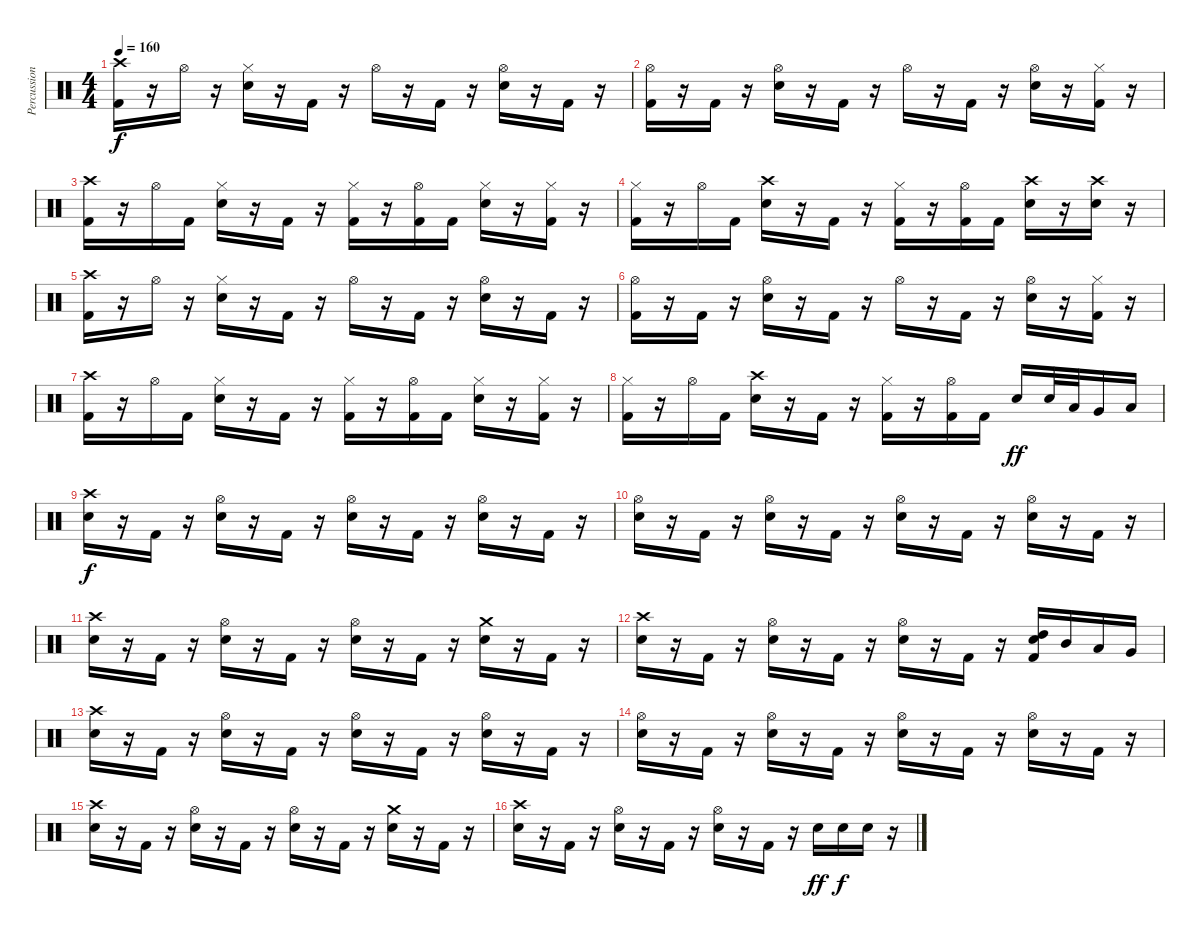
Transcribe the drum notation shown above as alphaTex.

\track ("Percussion" "Percussion") {instrument percussion}
\staff {score}
\articulation defaults
\ts (4 4)
\tempo 160
\clef neutral
\ks c
("Crash high (hit)" "Kick (hit) 2").16{dy f} r.16 "Hi-Hat (open)".16 r.16 ("Hi-Hat (closed)" "Snare (hit) 2").16 r.16 "Kick (hit) 2".16 r.16 "Hi-Hat (open)".16 r.16 "Kick (hit) 2".16 r.16 ("Hi-Hat (open)" "Snare (hit) 2").16 r.16 "Kick (hit) 2".16 r.16 |
("Hi-Hat (open)" "Kick (hit) 2").16 r.16 "Kick (hit) 2".16 r.16 ("Hi-Hat (open)" "Snare (hit) 2").16 r.16 "Kick (hit) 2".16 r.16 "Hi-Hat (open)".16 r.16 "Kick (hit) 2".16 r.16 ("Hi-Hat (open)" "Snare (hit) 2").16 r.16 ("Hi-Hat (closed)" "Kick (hit) 2").16 r.16 |
("Crash high (hit)" "Kick (hit) 2").16 r.16 "Hi-Hat (open)".16 "Kick (hit) 2".16 ("Hi-Hat (closed)" "Snare (hit) 2").16 r.16 "Kick (hit) 2".16 r.16 ("Hi-Hat (closed)" "Kick (hit) 2").16 r.16 ("Hi-Hat (open)" "Kick (hit) 2").16 "Kick (hit) 2".16 ("Hi-Hat (closed)" "Snare (hit) 2").16 r.16 ("Hi-Hat (closed)" "Kick (hit) 2").16 r.16 |
("Hi-Hat (closed)" "Kick (hit) 2").16 r.16 "Hi-Hat (open)".16 "Kick (hit) 2".16 ("Crash high (hit)" "Snare (hit) 2").16 r.16 "Kick (hit) 2".16 r.16 ("Hi-Hat (closed)" "Kick (hit) 2").16 r.16 ("Hi-Hat (open)" "Kick (hit) 2").16 "Kick (hit) 2".16 ("Crash high (hit)" "Snare (hit) 2").16 r.16 ("Crash high (hit)" "Snare (hit) 2").16 r.16 |
("Crash high (hit)" "Kick (hit) 2").16 r.16 "Hi-Hat (open)".16 r.16 ("Hi-Hat (closed)" "Snare (hit) 2").16 r.16 "Kick (hit) 2".16 r.16 "Hi-Hat (open)".16 r.16 "Kick (hit) 2".16 r.16 ("Hi-Hat (open)" "Snare (hit) 2").16 r.16 "Kick (hit) 2".16 r.16 |
("Hi-Hat (open)" "Kick (hit) 2").16 r.16 "Kick (hit) 2".16 r.16 ("Hi-Hat (open)" "Snare (hit) 2").16 r.16 "Kick (hit) 2".16 r.16 "Hi-Hat (open)".16 r.16 "Kick (hit) 2".16 r.16 ("Hi-Hat (open)" "Snare (hit) 2").16 r.16 ("Hi-Hat (closed)" "Kick (hit) 2").16 r.16 |
("Crash high (hit)" "Kick (hit) 2").16 r.16 "Hi-Hat (open)".16 "Kick (hit) 2".16 ("Hi-Hat (closed)" "Snare (hit) 2").16 r.16 "Kick (hit) 2".16 r.16 ("Hi-Hat (closed)" "Kick (hit) 2").16 r.16 ("Hi-Hat (open)" "Kick (hit) 2").16 "Kick (hit) 2".16 ("Hi-Hat (closed)" "Snare (hit) 2").16 r.16 ("Hi-Hat (closed)" "Kick (hit) 2").16 r.16 |
("Hi-Hat (closed)" "Kick (hit) 2").16 r.16 "Hi-Hat (open)".16 "Kick (hit) 2".16 ("Crash high (hit)" "Snare (hit) 2").16 r.16 "Kick (hit) 2".16 r.16 ("Hi-Hat (closed)" "Kick (hit) 2").16 r.16 ("Hi-Hat (open)" "Kick (hit) 2").16 "Kick (hit) 2".16 "Snare (hit) 2".16{dy ff} "Snare (hit) 2".32 "Low Tom (hit)".32 "Very Low Tom (hit)".16 "Low Floor Tom (hit)".16 |
("Crash high (hit)" "Snare (hit) 2").16{dy f} r.16 "Kick (hit) 2".16 r.16 ("Hi-Hat (open)" "Snare (hit) 2").16 r.16 "Kick (hit) 2".16 r.16 ("Hi-Hat (open)" "Snare (hit) 2").16 r.16 "Kick (hit) 2".16 r.16 ("Hi-Hat (open)" "Snare (hit) 2").16 r.16 "Kick (hit) 2".16 r.16 |
("Hi-Hat (open)" "Snare (hit) 2").16 r.16 "Kick (hit) 2".16 r.16 ("Hi-Hat (open)" "Snare (hit) 2").16 r.16 "Kick (hit) 2".16 r.16 ("Hi-Hat (open)" "Snare (hit) 2").16 r.16 "Kick (hit) 2".16 r.16 ("Hi-Hat (open)" "Snare (hit) 2").16 r.16 "Kick (hit) 2".16 r.16 |
("Crash high (hit)" "Snare (hit) 2").16 r.16 "Kick (hit) 2".16 r.16 ("Hi-Hat (open)" "Snare (hit) 2").16 r.16 "Kick (hit) 2".16 r.16 ("Hi-Hat (open)" "Snare (hit) 2").16 r.16 "Kick (hit) 2".16 r.16 ("Crash medium (hit)" "Snare (hit) 2").16 r.16 "Kick (hit) 2".16 r.16 |
("Crash high (hit)" "Snare (hit) 2").16 r.16 "Kick (hit) 2".16 r.16 ("Hi-Hat (open)" "Snare (hit) 2").16 r.16 "Kick (hit) 2".16 r.16 ("Hi-Hat (open)" "Snare (hit) 2").16 r.16 "Kick (hit) 2".16 r.16 ("High Tom (hit)" "Snare (hit) 2" "Kick (hit) 2").16 "Mid Tom (hit)".16 "Low Tom (hit)".16 "Very Low Tom (hit)".16 |
("Crash high (hit)" "Snare (hit) 2").16 r.16 "Kick (hit) 2".16 r.16 ("Hi-Hat (open)" "Snare (hit) 2").16 r.16 "Kick (hit) 2".16 r.16 ("Hi-Hat (open)" "Snare (hit) 2").16 r.16 "Kick (hit) 2".16 r.16 ("Hi-Hat (open)" "Snare (hit) 2").16 r.16 "Kick (hit) 2".16 r.16 |
("Hi-Hat (open)" "Snare (hit) 2").16 r.16 "Kick (hit) 2".16 r.16 ("Hi-Hat (open)" "Snare (hit) 2").16 r.16 "Kick (hit) 2".16 r.16 ("Hi-Hat (open)" "Snare (hit) 2").16 r.16 "Kick (hit) 2".16 r.16 ("Hi-Hat (open)" "Snare (hit) 2").16 r.16 "Kick (hit) 2".16 r.16 |
("Crash high (hit)" "Snare (hit) 2").16 r.16 "Kick (hit) 2".16 r.16 ("Hi-Hat (open)" "Snare (hit) 2").16 r.16 "Kick (hit) 2".16 r.16 ("Hi-Hat (open)" "Snare (hit) 2").16 r.16 "Kick (hit) 2".16 r.16 ("Crash medium (hit)" "Snare (hit) 2").16 r.16 "Kick (hit) 2".16 r.16 |
("Crash high (hit)" "Snare (hit) 2").16 r.16 "Kick (hit) 2".16 r.16 ("Hi-Hat (open)" "Snare (hit) 2").16 r.16 "Kick (hit) 2".16 r.16 ("Hi-Hat (open)" "Snare (hit) 2").16 r.16 "Kick (hit) 2".16 r.16 "Snare (hit) 2".16{dy ff} "Snare (hit) 2".16{dy f} "Snare (hit) 2".16 r.16
